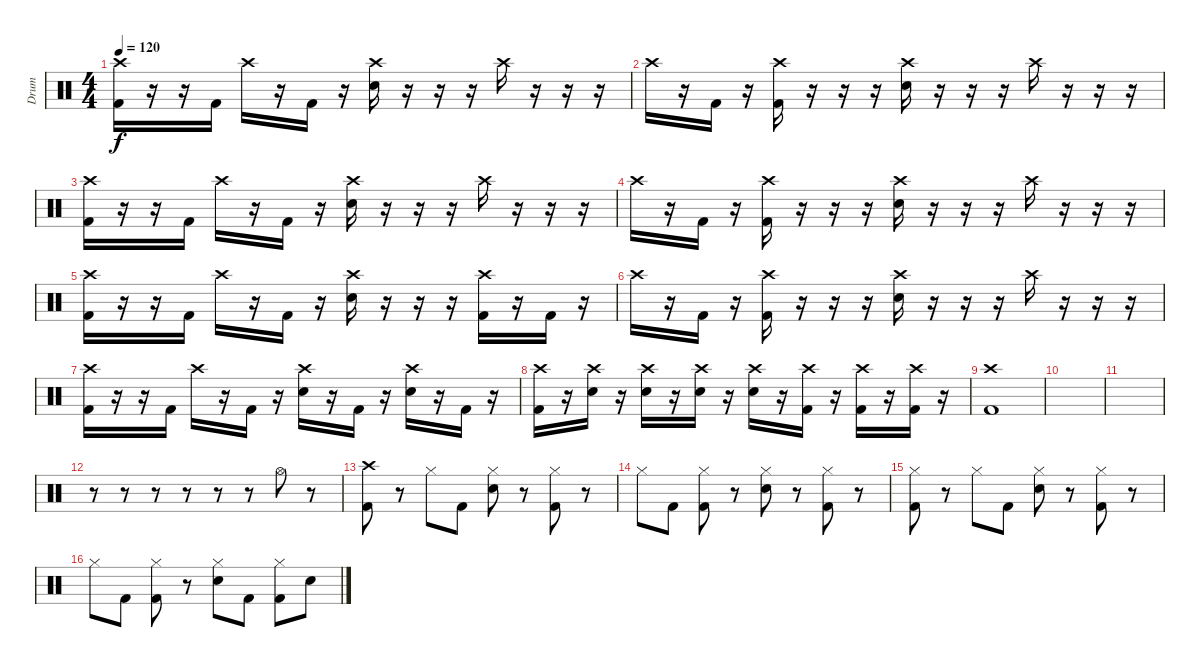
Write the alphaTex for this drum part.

\track ("Drum" "Drum") {instrument percussion}
\staff {score}
\articulation defaults
\ts (4 4)
\tempo 120
\clef neutral
\ks c
("Crash high (hit)" "Kick (hit) 2").16{dy f} r.16 r.16 "Kick (hit) 2".16 "Crash high (hit)".16 r.16 "Kick (hit) 2".16 r.16 ("Crash high (hit)" "Electric Snare (hit)").16 r.16 r.16 r.16 "Crash high (hit)".16 r.16 r.16 r.16 |
"Crash high (hit)".16 r.16 "Kick (hit) 2".16 r.16 ("Crash high (hit)" "Kick (hit) 2").16 r.16 r.16 r.16 ("Crash high (hit)" "Electric Snare (hit)").16 r.16 r.16 r.16 "Crash high (hit)".16 r.16 r.16 r.16 |
("Crash high (hit)" "Kick (hit) 2").16 r.16 r.16 "Kick (hit) 2".16 "Crash high (hit)".16 r.16 "Kick (hit) 2".16 r.16 ("Crash high (hit)" "Electric Snare (hit)").16 r.16 r.16 r.16 "Crash high (hit)".16 r.16 r.16 r.16 |
"Crash high (hit)".16 r.16 "Kick (hit) 2".16 r.16 ("Crash high (hit)" "Kick (hit) 2").16 r.16 r.16 r.16 ("Crash high (hit)" "Electric Snare (hit)").16 r.16 r.16 r.16 "Crash high (hit)".16 r.16 r.16 r.16 |
("Crash high (hit)" "Kick (hit) 2").16 r.16 r.16 "Kick (hit) 2".16 "Crash high (hit)".16 r.16 "Kick (hit) 2".16 r.16 ("Crash high (hit)" "Electric Snare (hit)").16 r.16 r.16 r.16 ("Crash high (hit)" "Kick (hit) 2").16 r.16 "Kick (hit) 2".16 r.16 |
"Crash high (hit)".16 r.16 "Kick (hit) 2".16 r.16 ("Crash high (hit)" "Kick (hit) 2").16 r.16 r.16 r.16 ("Crash high (hit)" "Electric Snare (hit)").16 r.16 r.16 r.16 "Crash high (hit)".16 r.16 r.16 r.16 |
("Crash high (hit)" "Kick (hit) 2").16 r.16 r.16 "Kick (hit) 2".16 "Crash high (hit)".16 r.16 "Kick (hit) 2".16 r.16 ("Crash high (hit)" "Electric Snare (hit)").16 r.16 "Kick (hit) 2".16 r.16 ("Crash high (hit)" "Electric Snare (hit)").16 r.16 "Kick (hit) 2".16 r.16 |
("Crash high (hit)" "Kick (hit) 2").16 r.16 ("Crash high (hit)" "Electric Snare (hit)").16 r.16 ("Crash high (hit)" "Electric Snare (hit)").16 r.16 ("Crash high (hit)" "Electric Snare (hit)").16 r.16 ("Crash high (hit)" "Electric Snare (hit)").16 r.16 ("Crash high (hit)" "Kick (hit) 2").16 r.16 ("Crash high (hit)" "Kick (hit) 2").16 r.16 ("Crash high (hit)" "Kick (hit) 2").16 r.16 |
("Crash high (hit)" "Kick (hit) 2").1 |
|
|
r.8 r.8 r.8 r.8 r.8 r.8 "Hi-Hat (open)".8 r.8 |
("Crash high (hit)" "Kick (hit) 2").8 r.8 "Hi-Hat (closed)".8 "Kick (hit) 2".8 ("Hi-Hat (closed)" "Electric Snare (hit)").8 r.8 ("Hi-Hat (closed)" "Kick (hit) 2").8 r.8 |
"Hi-Hat (closed)".8 "Kick (hit) 2".8 ("Hi-Hat (closed)" "Kick (hit) 2").8 r.8 ("Hi-Hat (closed)" "Electric Snare (hit)").8 r.8 ("Hi-Hat (closed)" "Kick (hit) 2").8 r.8 |
("Hi-Hat (closed)" "Kick (hit) 2").8 r.8 "Hi-Hat (closed)".8 "Kick (hit) 2".8 ("Hi-Hat (closed)" "Electric Snare (hit)").8 r.8 ("Hi-Hat (closed)" "Kick (hit) 2").8 r.8 |
"Hi-Hat (closed)".8 "Kick (hit) 2".8 ("Hi-Hat (closed)" "Kick (hit) 2").8 r.8 ("Hi-Hat (closed)" "Electric Snare (hit)").8 "Kick (hit) 2".8 ("Hi-Hat (closed)" "Kick (hit) 2").8 "Electric Snare (hit)".8
